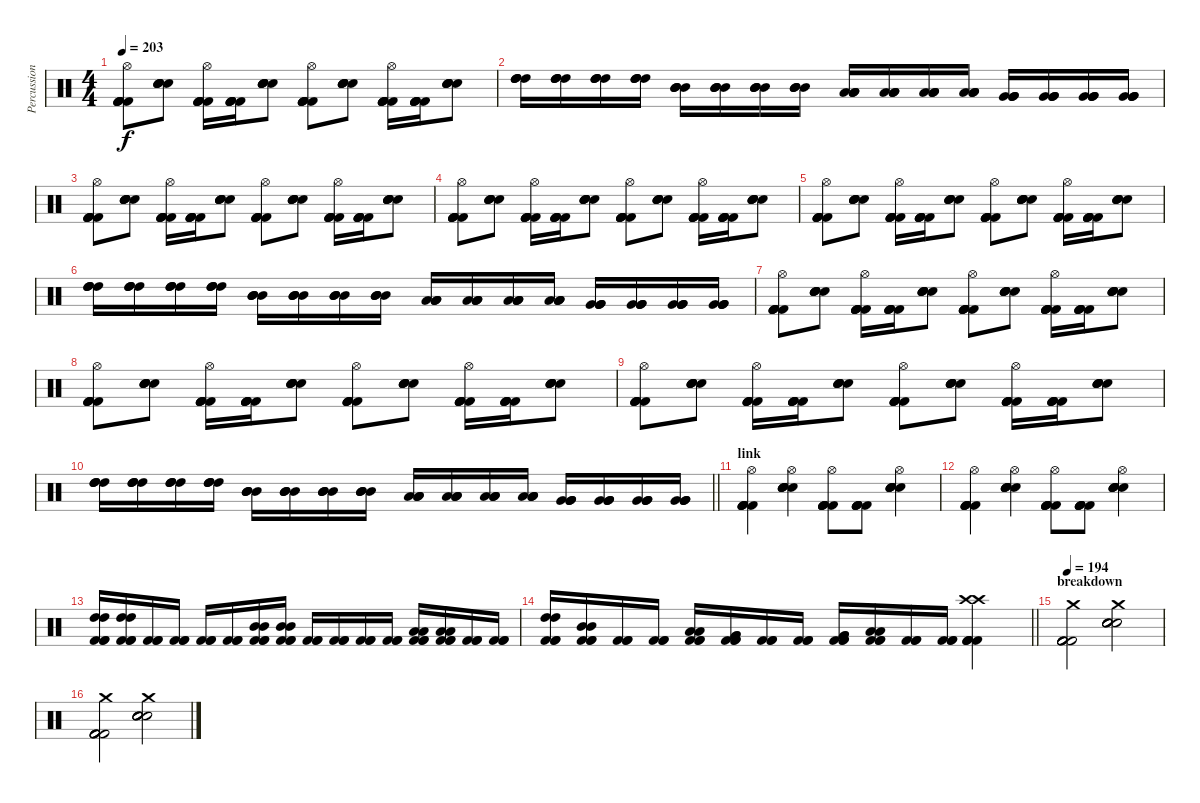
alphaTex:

\track ("Percussion" "Percussion") {instrument percussion}
\staff {score}
\articulation defaults
\ts (4 4)
\tempo 203
\clef neutral
\ks c
("Kick (hit) 2" "Kick (hit) 2" "Kick (hit) 2" "Kick (hit) 2" "Kick (hit) 2" "Hi-Hat (open)").8{dy f} ("Electric Snare (hit)" "Electric Snare (hit)" "Electric Snare (hit)" "Electric Snare (hit)" "Electric Snare (hit)").8 ("Kick (hit) 2" "Kick (hit) 2" "Kick (hit) 2" "Kick (hit) 2" "Kick (hit) 2" "Hi-Hat (open)").16 ("Kick (hit) 2" "Kick (hit) 2" "Kick (hit) 2" "Kick (hit) 2" "Kick (hit) 2").16 ("Electric Snare (hit)" "Electric Snare (hit)" "Electric Snare (hit)" "Electric Snare (hit)" "Electric Snare (hit)").8 ("Kick (hit) 2" "Kick (hit) 2" "Kick (hit) 2" "Kick (hit) 2" "Kick (hit) 2" "Hi-Hat (open)").8 ("Electric Snare (hit)" "Electric Snare (hit)" "Electric Snare (hit)" "Electric Snare (hit)" "Electric Snare (hit)").8 ("Kick (hit) 2" "Kick (hit) 2" "Kick (hit) 2" "Kick (hit) 2" "Kick (hit) 2" "Hi-Hat (open)").16 ("Kick (hit) 2" "Kick (hit) 2" "Kick (hit) 2" "Kick (hit) 2" "Kick (hit) 2").16 ("Electric Snare (hit)" "Electric Snare (hit)" "Electric Snare (hit)" "Electric Snare (hit)" "Electric Snare (hit)").8 |
("High Tom (hit)" "High Tom (hit)" "High Tom (hit)" "High Tom (hit)").16 ("High Tom (hit)" "High Tom (hit)" "High Tom (hit)" "High Tom (hit)").16 ("High Tom (hit)" "High Tom (hit)" "High Tom (hit)" "High Tom (hit)").16 ("High Tom (hit)" "High Tom (hit)" "High Tom (hit)" "High Tom (hit)").16 ("Mid Tom (hit)" "Mid Tom (hit)" "Mid Tom (hit)" "Mid Tom (hit)").16 ("Mid Tom (hit)" "Mid Tom (hit)" "Mid Tom (hit)" "Mid Tom (hit)").16 ("Mid Tom (hit)" "Mid Tom (hit)" "Mid Tom (hit)" "Mid Tom (hit)").16 ("Mid Tom (hit)" "Mid Tom (hit)" "Mid Tom (hit)" "Mid Tom (hit)").16 ("Low Tom (hit)" "Low Tom (hit)" "Low Tom (hit)" "Low Tom (hit)").16 ("Low Tom (hit)" "Low Tom (hit)" "Low Tom (hit)" "Low Tom (hit)").16 ("Low Tom (hit)" "Low Tom (hit)" "Low Tom (hit)" "Low Tom (hit)").16 ("Low Tom (hit)" "Low Tom (hit)" "Low Tom (hit)" "Low Tom (hit)").16 ("Very Low Tom (hit)" "Very Low Tom (hit)" "Very Low Tom (hit)" "Very Low Tom (hit)").16 ("Very Low Tom (hit)" "Very Low Tom (hit)" "Very Low Tom (hit)" "Very Low Tom (hit)").16 ("Very Low Tom (hit)" "Very Low Tom (hit)" "Very Low Tom (hit)" "Very Low Tom (hit)").16 ("Very Low Tom (hit)" "Very Low Tom (hit)" "Very Low Tom (hit)" "Very Low Tom (hit)").16 |
("Kick (hit) 2" "Kick (hit) 2" "Kick (hit) 2" "Kick (hit) 2" "Kick (hit) 2" "Hi-Hat (open)").8 ("Electric Snare (hit)" "Electric Snare (hit)" "Electric Snare (hit)" "Electric Snare (hit)" "Electric Snare (hit)").8 ("Kick (hit) 2" "Kick (hit) 2" "Kick (hit) 2" "Kick (hit) 2" "Kick (hit) 2" "Hi-Hat (open)").16 ("Kick (hit) 2" "Kick (hit) 2" "Kick (hit) 2" "Kick (hit) 2" "Kick (hit) 2").16 ("Electric Snare (hit)" "Electric Snare (hit)" "Electric Snare (hit)" "Electric Snare (hit)" "Electric Snare (hit)").8 ("Kick (hit) 2" "Kick (hit) 2" "Kick (hit) 2" "Kick (hit) 2" "Kick (hit) 2" "Hi-Hat (open)").8 ("Electric Snare (hit)" "Electric Snare (hit)" "Electric Snare (hit)" "Electric Snare (hit)" "Electric Snare (hit)").8 ("Kick (hit) 2" "Kick (hit) 2" "Kick (hit) 2" "Kick (hit) 2" "Kick (hit) 2" "Hi-Hat (open)").16 ("Kick (hit) 2" "Kick (hit) 2" "Kick (hit) 2" "Kick (hit) 2" "Kick (hit) 2").16 ("Electric Snare (hit)" "Electric Snare (hit)" "Electric Snare (hit)" "Electric Snare (hit)" "Electric Snare (hit)").8 |
("Kick (hit) 2" "Kick (hit) 2" "Kick (hit) 2" "Kick (hit) 2" "Kick (hit) 2" "Hi-Hat (open)").8 ("Electric Snare (hit)" "Electric Snare (hit)" "Electric Snare (hit)" "Electric Snare (hit)" "Electric Snare (hit)").8 ("Kick (hit) 2" "Kick (hit) 2" "Kick (hit) 2" "Kick (hit) 2" "Kick (hit) 2" "Hi-Hat (open)").16 ("Kick (hit) 2" "Kick (hit) 2" "Kick (hit) 2" "Kick (hit) 2" "Kick (hit) 2").16 ("Electric Snare (hit)" "Electric Snare (hit)" "Electric Snare (hit)" "Electric Snare (hit)" "Electric Snare (hit)").8 ("Kick (hit) 2" "Kick (hit) 2" "Kick (hit) 2" "Kick (hit) 2" "Kick (hit) 2" "Hi-Hat (open)").8 ("Electric Snare (hit)" "Electric Snare (hit)" "Electric Snare (hit)" "Electric Snare (hit)" "Electric Snare (hit)").8 ("Kick (hit) 2" "Kick (hit) 2" "Kick (hit) 2" "Kick (hit) 2" "Kick (hit) 2" "Hi-Hat (open)").16 ("Kick (hit) 2" "Kick (hit) 2" "Kick (hit) 2" "Kick (hit) 2" "Kick (hit) 2").16 ("Electric Snare (hit)" "Electric Snare (hit)" "Electric Snare (hit)" "Electric Snare (hit)" "Electric Snare (hit)").8 |
("Kick (hit) 2" "Kick (hit) 2" "Kick (hit) 2" "Kick (hit) 2" "Kick (hit) 2" "Hi-Hat (open)").8 ("Electric Snare (hit)" "Electric Snare (hit)" "Electric Snare (hit)" "Electric Snare (hit)" "Electric Snare (hit)").8 ("Kick (hit) 2" "Kick (hit) 2" "Kick (hit) 2" "Kick (hit) 2" "Kick (hit) 2" "Hi-Hat (open)").16 ("Kick (hit) 2" "Kick (hit) 2" "Kick (hit) 2" "Kick (hit) 2" "Kick (hit) 2").16 ("Electric Snare (hit)" "Electric Snare (hit)" "Electric Snare (hit)" "Electric Snare (hit)" "Electric Snare (hit)").8 ("Kick (hit) 2" "Kick (hit) 2" "Kick (hit) 2" "Kick (hit) 2" "Kick (hit) 2" "Hi-Hat (open)").8 ("Electric Snare (hit)" "Electric Snare (hit)" "Electric Snare (hit)" "Electric Snare (hit)" "Electric Snare (hit)").8 ("Kick (hit) 2" "Kick (hit) 2" "Kick (hit) 2" "Kick (hit) 2" "Kick (hit) 2" "Hi-Hat (open)").16 ("Kick (hit) 2" "Kick (hit) 2" "Kick (hit) 2" "Kick (hit) 2" "Kick (hit) 2").16 ("Electric Snare (hit)" "Electric Snare (hit)" "Electric Snare (hit)" "Electric Snare (hit)" "Electric Snare (hit)").8 |
("High Tom (hit)" "High Tom (hit)" "High Tom (hit)" "High Tom (hit)").16 ("High Tom (hit)" "High Tom (hit)" "High Tom (hit)" "High Tom (hit)").16 ("High Tom (hit)" "High Tom (hit)" "High Tom (hit)" "High Tom (hit)").16 ("High Tom (hit)" "High Tom (hit)" "High Tom (hit)" "High Tom (hit)").16 ("Mid Tom (hit)" "Mid Tom (hit)" "Mid Tom (hit)" "Mid Tom (hit)").16 ("Mid Tom (hit)" "Mid Tom (hit)" "Mid Tom (hit)" "Mid Tom (hit)").16 ("Mid Tom (hit)" "Mid Tom (hit)" "Mid Tom (hit)" "Mid Tom (hit)").16 ("Mid Tom (hit)" "Mid Tom (hit)" "Mid Tom (hit)" "Mid Tom (hit)").16 ("Low Tom (hit)" "Low Tom (hit)" "Low Tom (hit)" "Low Tom (hit)").16 ("Low Tom (hit)" "Low Tom (hit)" "Low Tom (hit)" "Low Tom (hit)").16 ("Low Tom (hit)" "Low Tom (hit)" "Low Tom (hit)" "Low Tom (hit)").16 ("Low Tom (hit)" "Low Tom (hit)" "Low Tom (hit)" "Low Tom (hit)").16 ("Very Low Tom (hit)" "Very Low Tom (hit)" "Very Low Tom (hit)" "Very Low Tom (hit)").16 ("Very Low Tom (hit)" "Very Low Tom (hit)" "Very Low Tom (hit)" "Very Low Tom (hit)").16 ("Very Low Tom (hit)" "Very Low Tom (hit)" "Very Low Tom (hit)" "Very Low Tom (hit)").16 ("Very Low Tom (hit)" "Very Low Tom (hit)" "Very Low Tom (hit)" "Very Low Tom (hit)").16 |
("Kick (hit) 2" "Kick (hit) 2" "Kick (hit) 2" "Kick (hit) 2" "Kick (hit) 2" "Hi-Hat (open)").8 ("Electric Snare (hit)" "Electric Snare (hit)" "Electric Snare (hit)" "Electric Snare (hit)" "Electric Snare (hit)").8 ("Kick (hit) 2" "Kick (hit) 2" "Kick (hit) 2" "Kick (hit) 2" "Kick (hit) 2" "Hi-Hat (open)").16 ("Kick (hit) 2" "Kick (hit) 2" "Kick (hit) 2" "Kick (hit) 2" "Kick (hit) 2").16 ("Electric Snare (hit)" "Electric Snare (hit)" "Electric Snare (hit)" "Electric Snare (hit)" "Electric Snare (hit)").8 ("Kick (hit) 2" "Kick (hit) 2" "Kick (hit) 2" "Kick (hit) 2" "Kick (hit) 2" "Hi-Hat (open)").8 ("Electric Snare (hit)" "Electric Snare (hit)" "Electric Snare (hit)" "Electric Snare (hit)" "Electric Snare (hit)").8 ("Kick (hit) 2" "Kick (hit) 2" "Kick (hit) 2" "Kick (hit) 2" "Kick (hit) 2" "Hi-Hat (open)").16 ("Kick (hit) 2" "Kick (hit) 2" "Kick (hit) 2" "Kick (hit) 2" "Kick (hit) 2").16 ("Electric Snare (hit)" "Electric Snare (hit)" "Electric Snare (hit)" "Electric Snare (hit)" "Electric Snare (hit)").8 |
("Kick (hit) 2" "Kick (hit) 2" "Kick (hit) 2" "Kick (hit) 2" "Kick (hit) 2" "Hi-Hat (open)").8 ("Electric Snare (hit)" "Electric Snare (hit)" "Electric Snare (hit)" "Electric Snare (hit)" "Electric Snare (hit)").8 ("Kick (hit) 2" "Kick (hit) 2" "Kick (hit) 2" "Kick (hit) 2" "Kick (hit) 2" "Hi-Hat (open)").16 ("Kick (hit) 2" "Kick (hit) 2" "Kick (hit) 2" "Kick (hit) 2" "Kick (hit) 2").16 ("Electric Snare (hit)" "Electric Snare (hit)" "Electric Snare (hit)" "Electric Snare (hit)" "Electric Snare (hit)").8 ("Kick (hit) 2" "Kick (hit) 2" "Kick (hit) 2" "Kick (hit) 2" "Kick (hit) 2" "Hi-Hat (open)").8 ("Electric Snare (hit)" "Electric Snare (hit)" "Electric Snare (hit)" "Electric Snare (hit)" "Electric Snare (hit)").8 ("Kick (hit) 2" "Kick (hit) 2" "Kick (hit) 2" "Kick (hit) 2" "Kick (hit) 2" "Hi-Hat (open)").16 ("Kick (hit) 2" "Kick (hit) 2" "Kick (hit) 2" "Kick (hit) 2" "Kick (hit) 2").16 ("Electric Snare (hit)" "Electric Snare (hit)" "Electric Snare (hit)" "Electric Snare (hit)" "Electric Snare (hit)").8 |
("Kick (hit) 2" "Kick (hit) 2" "Kick (hit) 2" "Kick (hit) 2" "Kick (hit) 2" "Hi-Hat (open)").8 ("Electric Snare (hit)" "Electric Snare (hit)" "Electric Snare (hit)" "Electric Snare (hit)" "Electric Snare (hit)").8 ("Kick (hit) 2" "Kick (hit) 2" "Kick (hit) 2" "Kick (hit) 2" "Kick (hit) 2" "Hi-Hat (open)").16 ("Kick (hit) 2" "Kick (hit) 2" "Kick (hit) 2" "Kick (hit) 2" "Kick (hit) 2").16 ("Electric Snare (hit)" "Electric Snare (hit)" "Electric Snare (hit)" "Electric Snare (hit)" "Electric Snare (hit)").8 ("Kick (hit) 2" "Kick (hit) 2" "Kick (hit) 2" "Kick (hit) 2" "Kick (hit) 2" "Hi-Hat (open)").8 ("Electric Snare (hit)" "Electric Snare (hit)" "Electric Snare (hit)" "Electric Snare (hit)" "Electric Snare (hit)").8 ("Kick (hit) 2" "Kick (hit) 2" "Kick (hit) 2" "Kick (hit) 2" "Kick (hit) 2" "Hi-Hat (open)").16 ("Kick (hit) 2" "Kick (hit) 2" "Kick (hit) 2" "Kick (hit) 2" "Kick (hit) 2").16 ("Electric Snare (hit)" "Electric Snare (hit)" "Electric Snare (hit)" "Electric Snare (hit)" "Electric Snare (hit)").8 |
\barLineRight lightlight
("High Tom (hit)" "High Tom (hit)" "High Tom (hit)" "High Tom (hit)").16 ("High Tom (hit)" "High Tom (hit)" "High Tom (hit)" "High Tom (hit)").16 ("High Tom (hit)" "High Tom (hit)" "High Tom (hit)" "High Tom (hit)").16 ("High Tom (hit)" "High Tom (hit)" "High Tom (hit)" "High Tom (hit)").16 ("Mid Tom (hit)" "Mid Tom (hit)" "Mid Tom (hit)" "Mid Tom (hit)").16 ("Mid Tom (hit)" "Mid Tom (hit)" "Mid Tom (hit)" "Mid Tom (hit)").16 ("Mid Tom (hit)" "Mid Tom (hit)" "Mid Tom (hit)" "Mid Tom (hit)").16 ("Mid Tom (hit)" "Mid Tom (hit)" "Mid Tom (hit)" "Mid Tom (hit)").16 ("Low Tom (hit)" "Low Tom (hit)" "Low Tom (hit)" "Low Tom (hit)").16 ("Low Tom (hit)" "Low Tom (hit)" "Low Tom (hit)" "Low Tom (hit)").16 ("Low Tom (hit)" "Low Tom (hit)" "Low Tom (hit)" "Low Tom (hit)").16 ("Low Tom (hit)" "Low Tom (hit)" "Low Tom (hit)" "Low Tom (hit)").16 ("Very Low Tom (hit)" "Very Low Tom (hit)" "Very Low Tom (hit)" "Very Low Tom (hit)").16 ("Very Low Tom (hit)" "Very Low Tom (hit)" "Very Low Tom (hit)" "Very Low Tom (hit)").16 ("Very Low Tom (hit)" "Very Low Tom (hit)" "Very Low Tom (hit)" "Very Low Tom (hit)").16 ("Very Low Tom (hit)" "Very Low Tom (hit)" "Very Low Tom (hit)" "Very Low Tom (hit)").16 |
\section ("" "link")
("Kick (hit) 2" "Kick (hit) 2" "Kick (hit) 2" "Kick (hit) 2" "Kick (hit) 2" "Hi-Hat (open)").4 ("Electric Snare (hit)" "Electric Snare (hit)" "Electric Snare (hit)" "Electric Snare (hit)" "Electric Snare (hit)" "Hi-Hat (open)").4 ("Kick (hit) 2" "Kick (hit) 2" "Kick (hit) 2" "Kick (hit) 2" "Kick (hit) 2" "Hi-Hat (open)").8 ("Kick (hit) 2" "Kick (hit) 2" "Kick (hit) 2" "Kick (hit) 2" "Kick (hit) 2").8 ("Electric Snare (hit)" "Electric Snare (hit)" "Electric Snare (hit)" "Electric Snare (hit)" "Electric Snare (hit)" "Hi-Hat (open)").4 |
("Kick (hit) 2" "Kick (hit) 2" "Kick (hit) 2" "Kick (hit) 2" "Kick (hit) 2" "Hi-Hat (open)").4 ("Electric Snare (hit)" "Electric Snare (hit)" "Electric Snare (hit)" "Electric Snare (hit)" "Electric Snare (hit)" "Hi-Hat (open)").4 ("Kick (hit) 2" "Kick (hit) 2" "Kick (hit) 2" "Kick (hit) 2" "Kick (hit) 2" "Hi-Hat (open)").8 ("Kick (hit) 2" "Kick (hit) 2" "Kick (hit) 2" "Kick (hit) 2" "Kick (hit) 2").8 ("Electric Snare (hit)" "Electric Snare (hit)" "Electric Snare (hit)" "Electric Snare (hit)" "Electric Snare (hit)" "Hi-Hat (open)").4 |
("Kick (hit) 2" "Kick (hit) 2" "Kick (hit) 2" "High Tom (hit)" "High Tom (hit)").16 ("Kick (hit) 2" "Kick (hit) 2" "Kick (hit) 2" "High Tom (hit)" "High Tom (hit)").16 ("Kick (hit) 2" "Kick (hit) 2" "Kick (hit) 2").16 ("Kick (hit) 2" "Kick (hit) 2" "Kick (hit) 2").16 ("Kick (hit) 2" "Kick (hit) 2" "Kick (hit) 2").16 ("Kick (hit) 2" "Kick (hit) 2" "Kick (hit) 2").16 ("Kick (hit) 2" "Kick (hit) 2" "Kick (hit) 2" "Mid Tom (hit)" "Mid Tom (hit)").16 ("Kick (hit) 2" "Kick (hit) 2" "Kick (hit) 2" "Mid Tom (hit)" "Mid Tom (hit)").16 ("Kick (hit) 2" "Kick (hit) 2" "Kick (hit) 2").16 ("Kick (hit) 2" "Kick (hit) 2" "Kick (hit) 2").16 ("Kick (hit) 2" "Kick (hit) 2" "Kick (hit) 2").16 ("Kick (hit) 2" "Kick (hit) 2" "Kick (hit) 2").16 ("Kick (hit) 2" "Kick (hit) 2" "Kick (hit) 2" "Low Tom (hit)" "Low Tom (hit)").16 ("Kick (hit) 2" "Kick (hit) 2" "Kick (hit) 2" "Low Tom (hit)" "Low Tom (hit)").16 ("Kick (hit) 2" "Kick (hit) 2" "Kick (hit) 2").16 ("Kick (hit) 2" "Kick (hit) 2" "Kick (hit) 2").16 |
\barLineRight lightlight
("Kick (hit) 2" "Kick (hit) 2" "Kick (hit) 2" "High Tom (hit)" "High Tom (hit)").16 ("Kick (hit) 2" "Kick (hit) 2" "Kick (hit) 2" "Mid Tom (hit)" "Mid Tom (hit)").16 ("Kick (hit) 2" "Kick (hit) 2" "Kick (hit) 2").16 ("Kick (hit) 2" "Kick (hit) 2" "Kick (hit) 2").16 ("Kick (hit) 2" "Kick (hit) 2" "Kick (hit) 2" "Low Tom (hit)" "Low Tom (hit)").16 ("Kick (hit) 2" "Kick (hit) 2" "Kick (hit) 2" "Very Low Tom (hit)" "Very Low Tom (hit)").16 ("Kick (hit) 2" "Kick (hit) 2" "Kick (hit) 2").16 ("Kick (hit) 2" "Kick (hit) 2" "Kick (hit) 2").16 ("Kick (hit) 2" "Kick (hit) 2" "Kick (hit) 2" "Very Low Tom (hit)" "Very Low Tom (hit)").16 ("Kick (hit) 2" "Kick (hit) 2" "Kick (hit) 2" "Low Floor Tom (hit)" "Low Floor Tom (hit)").16 ("Kick (hit) 2" "Kick (hit) 2" "Kick (hit) 2").16 ("Kick (hit) 2" "Kick (hit) 2" "Kick (hit) 2").16 ("Kick (hit) 2" "Kick (hit) 2" "Kick (hit) 2" "Kick (hit) 2" "Crash high (hit)" "Crash high (hit)").4 |
\section ("" "breakdown")
\tempo 193
\tempo 194
("Kick (hit) 2" "Kick (hit) 2" "Kick (hit) 2" "Kick (hit) 2" "Kick (hit) 2" "Crash medium (hit)").2 ("Electric Snare (hit)" "Electric Snare (hit)" "Electric Snare (hit)" "Electric Snare (hit)" "Electric Snare (hit)" "Crash medium (hit)").2 |
("Kick (hit) 2" "Kick (hit) 2" "Kick (hit) 2" "Kick (hit) 2" "Kick (hit) 2" "Crash medium (hit)").2 ("Electric Snare (hit)" "Electric Snare (hit)" "Electric Snare (hit)" "Electric Snare (hit)" "Electric Snare (hit)" "Crash medium (hit)").2
